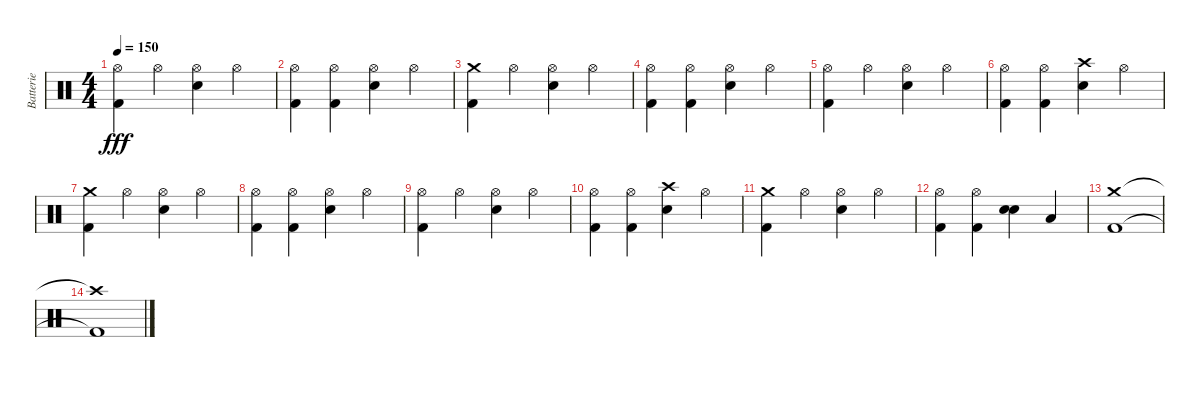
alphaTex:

\track ("Batterie" "Batterie") {instrument percussion}
\staff {score}
\articulation defaults
\ts (4 4)
\tempo 150
\clef neutral
\ks c
("Hi-Hat (open)" "Kick (hit) 2").4{dy fff} "Hi-Hat (open)".4 ("Hi-Hat (open)" "Electric Snare (hit)").4 "Hi-Hat (open)".4 |
("Hi-Hat (open)" "Kick (hit) 2").4 ("Hi-Hat (open)" "Kick (hit) 2").4 ("Hi-Hat (open)" "Electric Snare (hit)").4 "Hi-Hat (open)".4 |
("Crash medium (hit)" "Kick (hit) 2").4 "Hi-Hat (open)".4 ("Hi-Hat (open)" "Electric Snare (hit)").4 "Hi-Hat (open)".4 |
("Hi-Hat (open)" "Kick (hit) 2").4 ("Hi-Hat (open)" "Kick (hit) 2").4 ("Hi-Hat (open)" "Electric Snare (hit)").4 "Hi-Hat (open)".4 |
("Hi-Hat (open)" "Kick (hit) 2").4 "Hi-Hat (open)".4 ("Hi-Hat (open)" "Electric Snare (hit)").4 "Hi-Hat (open)".4 |
("Hi-Hat (open)" "Kick (hit) 2").4 ("Hi-Hat (open)" "Kick (hit) 2").4 ("Crash high (hit)" "Electric Snare (hit)").4 "Hi-Hat (open)".4 |
("Crash medium (hit)" "Kick (hit) 2").4 "Hi-Hat (open)".4 ("Hi-Hat (open)" "Electric Snare (hit)").4 "Hi-Hat (open)".4 |
("Hi-Hat (open)" "Kick (hit) 2").4 ("Hi-Hat (open)" "Kick (hit) 2").4 ("Hi-Hat (open)" "Electric Snare (hit)").4 "Hi-Hat (open)".4 |
("Hi-Hat (open)" "Kick (hit) 2").4 "Hi-Hat (open)".4 ("Hi-Hat (open)" "Electric Snare (hit)").4 "Hi-Hat (open)".4 |
("Hi-Hat (open)" "Kick (hit) 2").4 ("Hi-Hat (open)" "Kick (hit) 2").4 ("Crash high (hit)" "Electric Snare (hit)").4 "Hi-Hat (open)".4 |
("Crash medium (hit)" "Kick (hit) 2").4 "Hi-Hat (open)".4 ("Hi-Hat (open)" "Electric Snare (hit)").4 "Hi-Hat (open)".4 |
("Hi-Hat (open)" "Kick (hit) 2").4 ("Hi-Hat (open)" "Kick (hit) 2").4 ("Electric Snare (hit)" "Electric Snare (hit)").4{bu 120} "Low Tom (hit)".4 |
("Crash medium (hit)" "Kick (hit) 2").1 |
("Crash high (hit)"{t} "Kick (hit) 2"{t}).1
